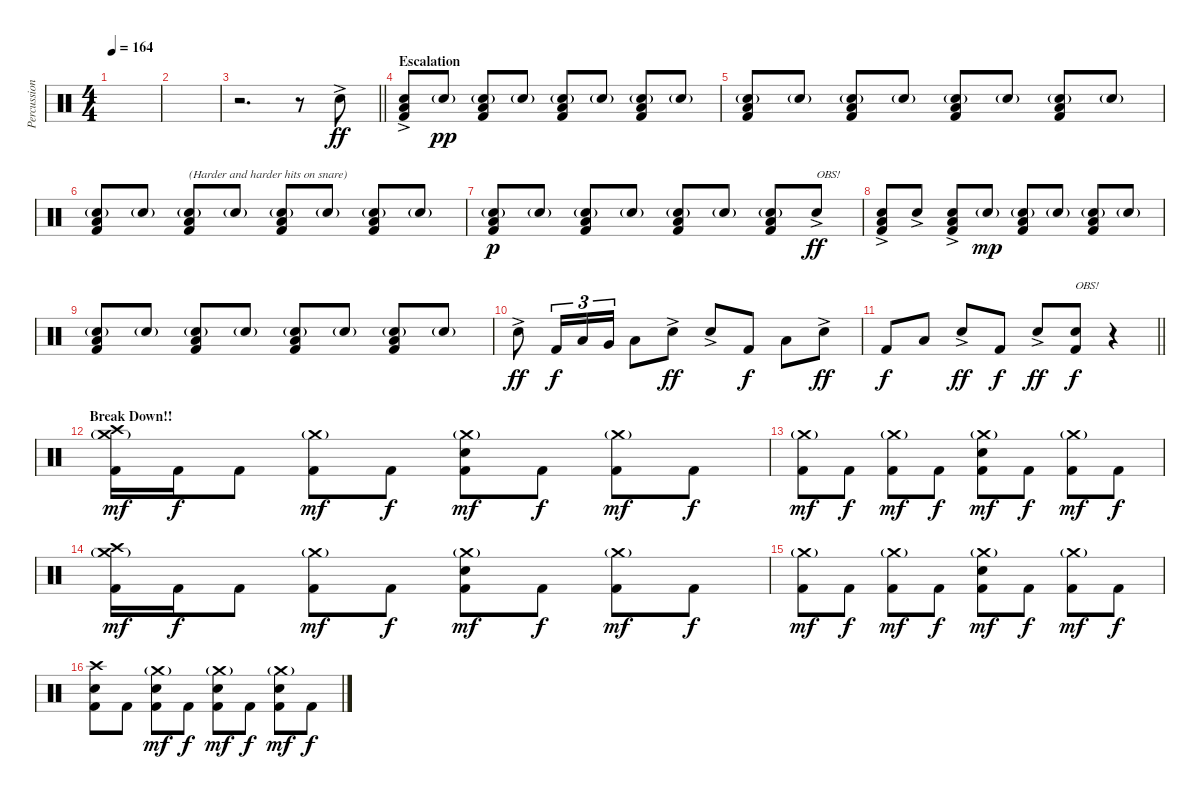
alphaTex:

\track ("Percussion - Michael Ambrose" "Percussion") {instrument percussion}
\staff {score}
\articulation defaults
\ts (4 4)
\tempo 164
\clef neutral
\ks c
|
|
\barLineRight lightlight
r.2{d} r.8 "Electric Snare (hit)"{ac}.8{dy ff} |
\section ("" "Escalation")
("Low Floor Tom (hit)" "Electric Snare (hit)"{ac} "Kick (hit) 2").8 "Electric Snare (hit)"{g}.8{dy pp} ("Low Floor Tom (hit)" "Electric Snare (hit)"{g} "Kick (hit) 2").8 "Electric Snare (hit)"{g}.8 ("Low Floor Tom (hit)" "Electric Snare (hit)"{g} "Kick (hit) 2").8 "Electric Snare (hit)"{g}.8 ("Low Floor Tom (hit)" "Electric Snare (hit)"{g} "Kick (hit) 2").8 "Electric Snare (hit)"{g}.8 |
("Low Floor Tom (hit)" "Electric Snare (hit)"{g} "Kick (hit) 2").8 "Electric Snare (hit)"{g}.8 ("Low Floor Tom (hit)" "Electric Snare (hit)"{g} "Kick (hit) 2").8 "Electric Snare (hit)"{g}.8 ("Low Floor Tom (hit)" "Electric Snare (hit)"{g} "Kick (hit) 2").8 "Electric Snare (hit)"{g}.8 ("Low Floor Tom (hit)" "Electric Snare (hit)"{g} "Kick (hit) 2").8 "Electric Snare (hit)"{g}.8 |
("Low Floor Tom (hit)" "Electric Snare (hit)"{g} "Kick (hit) 2").8 "Electric Snare (hit)"{g}.8 ("Low Floor Tom (hit)" "Electric Snare (hit)"{g} "Kick (hit) 2").8{txt "(Harder and harder hits on snare)"} "Electric Snare (hit)"{g}.8 ("Low Floor Tom (hit)" "Electric Snare (hit)"{g} "Kick (hit) 2").8 "Electric Snare (hit)"{g}.8 ("Low Floor Tom (hit)" "Electric Snare (hit)"{g} "Kick (hit) 2").8 "Electric Snare (hit)"{g}.8 |
("Low Floor Tom (hit)" "Electric Snare (hit)"{g} "Kick (hit) 2").8{dy p} "Electric Snare (hit)"{g}.8 ("Low Floor Tom (hit)" "Electric Snare (hit)"{g} "Kick (hit) 2").8 "Electric Snare (hit)"{g}.8 ("Low Floor Tom (hit)" "Electric Snare (hit)"{g} "Kick (hit) 2").8 "Electric Snare (hit)"{g}.8 ("Low Floor Tom (hit)" "Electric Snare (hit)"{g} "Kick (hit) 2").8 "Electric Snare (hit)"{ac}.8{txt "OBS!" dy ff} |
("Low Floor Tom (hit)" "Electric Snare (hit)"{ac} "Kick (hit) 2").8 "Electric Snare (hit)"{ac}.8 ("Low Floor Tom (hit)" "Electric Snare (hit)"{ac} "Kick (hit) 2").8 "Electric Snare (hit)"{g}.8{dy mp} ("Low Floor Tom (hit)" "Electric Snare (hit)"{g} "Kick (hit) 2").8 "Electric Snare (hit)"{g}.8 ("Low Floor Tom (hit)" "Electric Snare (hit)"{g} "Kick (hit) 2").8 "Electric Snare (hit)"{g}.8 |
("Low Floor Tom (hit)" "Electric Snare (hit)"{g} "Kick (hit) 2").8 "Electric Snare (hit)"{g}.8 ("Low Floor Tom (hit)" "Electric Snare (hit)"{g} "Kick (hit) 2").8 "Electric Snare (hit)"{g}.8 ("Low Floor Tom (hit)" "Electric Snare (hit)"{g} "Kick (hit) 2").8 "Electric Snare (hit)"{g}.8 ("Low Floor Tom (hit)" "Electric Snare (hit)"{g} "Kick (hit) 2").8 "Electric Snare (hit)"{g}.8 |
"Electric Snare (hit)"{ac}.8{dy ff} "Kick (hit) 2".16{tu (3 2) dy f} "Low Floor Tom (hit)".16{tu (3 2)} "Very Low Tom (hit)".16{tu (3 2)} "Low Tom (hit)".8 "Electric Snare (hit)"{ac}.8{dy ff} "Electric Snare (hit)"{ac}.8 "Kick (hit) 2".8{dy f} "Low Tom (hit)".8 "Electric Snare (hit)"{ac}.8{dy ff} |
\barLineRight lightlight "Kick (hit) 2".8{dy f} "Low Tom (hit)".8 "Electric Snare (hit)"{ac}.8{dy ff} "Kick (hit) 2".8{dy f} "Electric Snare (hit)"{ac}.8{dy ff}
("Electric Snare (hit)" "Kick (hit) 2").8{txt "OBS!" dy f} r.4 |
\section ("" "Break Down!!")
("Crash high (hit)" "Crash medium (hit)"{g} "Kick (hit) 2").16{dy mf} "Kick (hit) 2".16{dy f} "Kick (hit) 2".8 ("Crash medium (hit)"{g} "Kick (hit) 2").8{dy mf} "Kick (hit) 2".8{dy f} ("Crash medium (hit)"{g} "Electric Snare (hit)" "Kick (hit) 2").8{dy mf} "Kick (hit) 2".8{dy f} ("Crash medium (hit)"{g} "Kick (hit) 2").8{dy mf} "Kick (hit) 2".8{dy f} |
("Crash medium (hit)"{g} "Kick (hit) 2").8{dy mf} "Kick (hit) 2".8{dy f} ("Crash medium (hit)"{g} "Kick (hit) 2").8{dy mf} "Kick (hit) 2".8{dy f} ("Crash medium (hit)"{g} "Electric Snare (hit)" "Kick (hit) 2").8{dy mf} "Kick (hit) 2".8{dy f} ("Crash medium (hit)"{g} "Kick (hit) 2").8{dy mf} "Kick (hit) 2".8{dy f} |
("Crash high (hit)" "Crash medium (hit)"{g} "Kick (hit) 2").16{dy mf} "Kick (hit) 2".16{dy f} "Kick (hit) 2".8 ("Crash medium (hit)"{g} "Kick (hit) 2").8{dy mf} "Kick (hit) 2".8{dy f} ("Crash medium (hit)"{g} "Electric Snare (hit)" "Kick (hit) 2").8{dy mf} "Kick (hit) 2".8{dy f} ("Crash medium (hit)"{g} "Kick (hit) 2").8{dy mf} "Kick (hit) 2".8{dy f} |
("Crash medium (hit)"{g} "Kick (hit) 2").8{dy mf} "Kick (hit) 2".8{dy f} ("Crash medium (hit)"{g} "Kick (hit) 2").8{dy mf} "Kick (hit) 2".8{dy f} ("Crash medium (hit)"{g} "Electric Snare (hit)" "Kick (hit) 2").8{dy mf} "Kick (hit) 2".8{dy f} ("Crash medium (hit)"{g} "Kick (hit) 2").8{dy mf} "Kick (hit) 2".8{dy f} |
("Crash high (hit)" "Electric Snare (hit)" "Kick (hit) 2").8 "Kick (hit) 2".8 ("Crash medium (hit)"{g} "Electric Snare (hit)" "Kick (hit) 2").8{dy mf} "Kick (hit) 2".8{dy f} ("Crash medium (hit)"{g} "Electric Snare (hit)" "Kick (hit) 2").8{dy mf} "Kick (hit) 2".8{dy f} ("Crash medium (hit)"{g} "Electric Snare (hit)" "Kick (hit) 2").8{dy mf} "Kick (hit) 2".8{dy f}
